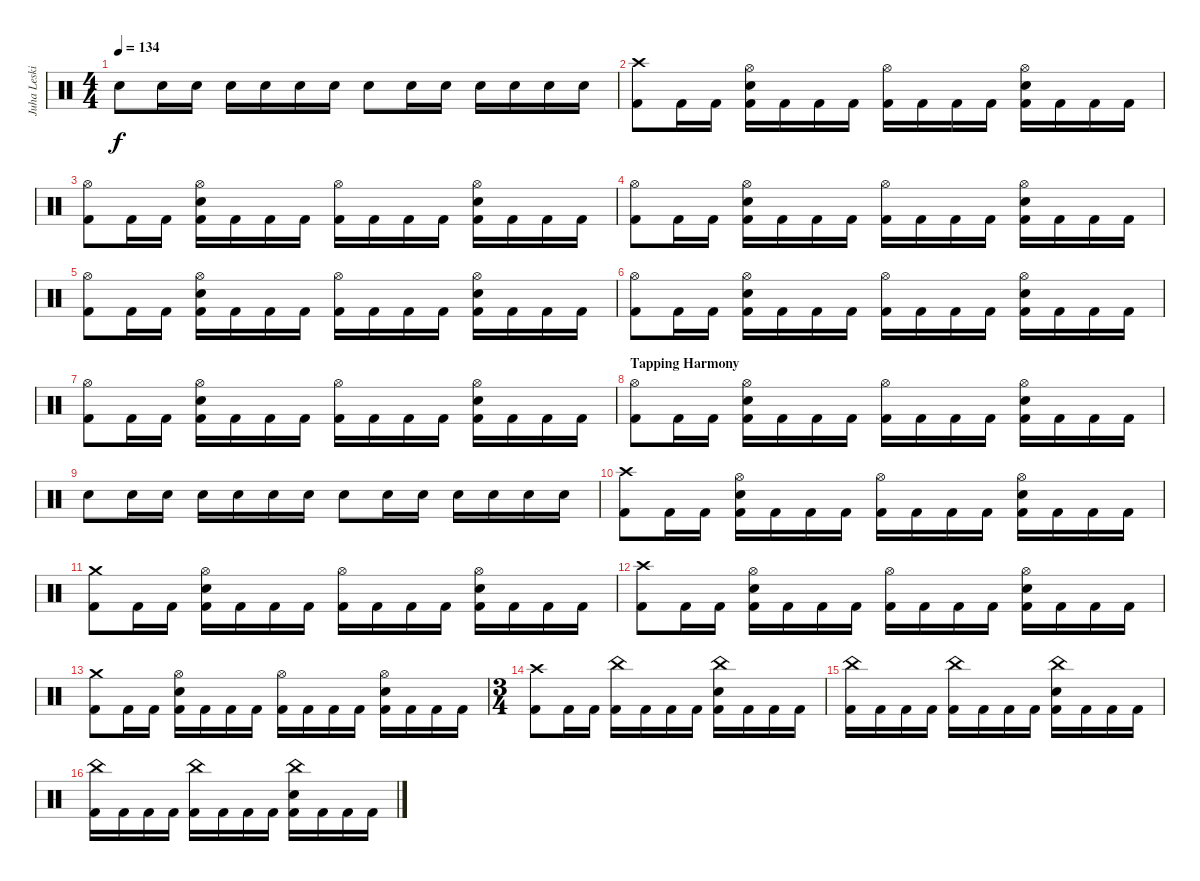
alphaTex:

\track ("Juha Leskinen - Drums" "Juha Leski") {instrument percussion}
\staff {score}
\articulation defaults
\ts (4 4)
\tempo 134
\clef neutral
\ks c "Electric Snare (hit)".8{dy f} "Electric Snare (hit)".16 "Electric Snare (hit)".16 "Electric Snare (hit)".16 "Electric Snare (hit)".16 "Electric Snare (hit)".16 "Electric Snare (hit)".16 "Electric Snare (hit)".8 "Electric Snare (hit)".16 "Electric Snare (hit)".16 "Electric Snare (hit)".16 "Electric Snare (hit)".16 "Electric Snare (hit)".16 "Electric Snare (hit)".16
|
("Crash high (hit)" "Kick (hit) 2").8 "Kick (hit) 2".16 "Kick (hit) 2".16 ("Hi-Hat (open)" "Electric Snare (hit)" "Kick (hit) 2").16 "Kick (hit) 2".16 "Kick (hit) 2".16 "Kick (hit) 2".16 ("Hi-Hat (open)" "Kick (hit) 2").16 "Kick (hit) 2".16 "Kick (hit) 2".16 "Kick (hit) 2".16 ("Hi-Hat (open)" "Electric Snare (hit)" "Kick (hit) 2").16 "Kick (hit) 2".16 "Kick (hit) 2".16 "Kick (hit) 2".16 |
("Hi-Hat (open)" "Kick (hit) 2").8 "Kick (hit) 2".16 "Kick (hit) 2".16 ("Hi-Hat (open)" "Electric Snare (hit)" "Kick (hit) 2").16 "Kick (hit) 2".16 "Kick (hit) 2".16 "Kick (hit) 2".16 ("Hi-Hat (open)" "Kick (hit) 2").16 "Kick (hit) 2".16 "Kick (hit) 2".16 "Kick (hit) 2".16 ("Hi-Hat (open)" "Electric Snare (hit)" "Kick (hit) 2").16 "Kick (hit) 2".16 "Kick (hit) 2".16 "Kick (hit) 2".16 |
("Hi-Hat (open)" "Kick (hit) 2").8 "Kick (hit) 2".16 "Kick (hit) 2".16 ("Hi-Hat (open)" "Electric Snare (hit)" "Kick (hit) 2").16 "Kick (hit) 2".16 "Kick (hit) 2".16 "Kick (hit) 2".16 ("Hi-Hat (open)" "Kick (hit) 2").16 "Kick (hit) 2".16 "Kick (hit) 2".16 "Kick (hit) 2".16 ("Hi-Hat (open)" "Electric Snare (hit)" "Kick (hit) 2").16 "Kick (hit) 2".16 "Kick (hit) 2".16 "Kick (hit) 2".16 |
("Hi-Hat (open)" "Kick (hit) 2").8 "Kick (hit) 2".16 "Kick (hit) 2".16 ("Hi-Hat (open)" "Electric Snare (hit)" "Kick (hit) 2").16 "Kick (hit) 2".16 "Kick (hit) 2".16 "Kick (hit) 2".16 ("Hi-Hat (open)" "Kick (hit) 2").16 "Kick (hit) 2".16 "Kick (hit) 2".16 "Kick (hit) 2".16 ("Hi-Hat (open)" "Electric Snare (hit)" "Kick (hit) 2").16 "Kick (hit) 2".16 "Kick (hit) 2".16 "Kick (hit) 2".16 |
("Hi-Hat (open)" "Kick (hit) 2").8 "Kick (hit) 2".16 "Kick (hit) 2".16 ("Hi-Hat (open)" "Electric Snare (hit)" "Kick (hit) 2").16 "Kick (hit) 2".16 "Kick (hit) 2".16 "Kick (hit) 2".16 ("Hi-Hat (open)" "Kick (hit) 2").16 "Kick (hit) 2".16 "Kick (hit) 2".16 "Kick (hit) 2".16 ("Hi-Hat (open)" "Electric Snare (hit)" "Kick (hit) 2").16 "Kick (hit) 2".16 "Kick (hit) 2".16 "Kick (hit) 2".16 |
("Hi-Hat (open)" "Kick (hit) 2").8 "Kick (hit) 2".16 "Kick (hit) 2".16 ("Hi-Hat (open)" "Electric Snare (hit)" "Kick (hit) 2").16 "Kick (hit) 2".16 "Kick (hit) 2".16 "Kick (hit) 2".16 ("Hi-Hat (open)" "Kick (hit) 2").16 "Kick (hit) 2".16 "Kick (hit) 2".16 "Kick (hit) 2".16 ("Hi-Hat (open)" "Electric Snare (hit)" "Kick (hit) 2").16 "Kick (hit) 2".16 "Kick (hit) 2".16 "Kick (hit) 2".16 |
\section ("" "Tapping Harmony")
("Hi-Hat (open)" "Kick (hit) 2").8 "Kick (hit) 2".16 "Kick (hit) 2".16 ("Hi-Hat (open)" "Electric Snare (hit)" "Kick (hit) 2").16 "Kick (hit) 2".16 "Kick (hit) 2".16 "Kick (hit) 2".16 ("Hi-Hat (open)" "Kick (hit) 2").16 "Kick (hit) 2".16 "Kick (hit) 2".16 "Kick (hit) 2".16 ("Hi-Hat (open)" "Electric Snare (hit)" "Kick (hit) 2").16 "Kick (hit) 2".16 "Kick (hit) 2".16 "Kick (hit) 2".16 |
"Electric Snare (hit)".8 "Electric Snare (hit)".16 "Electric Snare (hit)".16 "Electric Snare (hit)".16 "Electric Snare (hit)".16 "Electric Snare (hit)".16 "Electric Snare (hit)".16 "Electric Snare (hit)".8 "Electric Snare (hit)".16 "Electric Snare (hit)".16 "Electric Snare (hit)".16 "Electric Snare (hit)".16 "Electric Snare (hit)".16 "Electric Snare (hit)".16 |
("Crash high (hit)" "Kick (hit) 2").8 "Kick (hit) 2".16 "Kick (hit) 2".16 ("Hi-Hat (open)" "Electric Snare (hit)" "Kick (hit) 2").16 "Kick (hit) 2".16 "Kick (hit) 2".16 "Kick (hit) 2".16 ("Hi-Hat (open)" "Kick (hit) 2").16 "Kick (hit) 2".16 "Kick (hit) 2".16 "Kick (hit) 2".16 ("Hi-Hat (open)" "Electric Snare (hit)" "Kick (hit) 2").16 "Kick (hit) 2".16 "Kick (hit) 2".16 "Kick (hit) 2".16 |
("Crash medium (hit)" "Kick (hit) 2").8 "Kick (hit) 2".16 "Kick (hit) 2".16 ("Hi-Hat (open)" "Electric Snare (hit)" "Kick (hit) 2").16 "Kick (hit) 2".16 "Kick (hit) 2".16 "Kick (hit) 2".16 ("Hi-Hat (open)" "Kick (hit) 2").16 "Kick (hit) 2".16 "Kick (hit) 2".16 "Kick (hit) 2".16 ("Hi-Hat (open)" "Electric Snare (hit)" "Kick (hit) 2").16 "Kick (hit) 2".16 "Kick (hit) 2".16 "Kick (hit) 2".16 |
("Crash high (hit)" "Kick (hit) 2").8 "Kick (hit) 2".16 "Kick (hit) 2".16 ("Hi-Hat (open)" "Electric Snare (hit)" "Kick (hit) 2").16 "Kick (hit) 2".16 "Kick (hit) 2".16 "Kick (hit) 2".16 ("Hi-Hat (open)" "Kick (hit) 2").16 "Kick (hit) 2".16 "Kick (hit) 2".16 "Kick (hit) 2".16 ("Hi-Hat (open)" "Electric Snare (hit)" "Kick (hit) 2").16 "Kick (hit) 2".16 "Kick (hit) 2".16 "Kick (hit) 2".16 |
("Crash medium (hit)" "Kick (hit) 2").8 "Kick (hit) 2".16 "Kick (hit) 2".16 ("Hi-Hat (open)" "Electric Snare (hit)" "Kick (hit) 2").16 "Kick (hit) 2".16 "Kick (hit) 2".16 "Kick (hit) 2".16 ("Hi-Hat (open)" "Kick (hit) 2").16 "Kick (hit) 2".16 "Kick (hit) 2".16 "Kick (hit) 2".16 ("Hi-Hat (open)" "Electric Snare (hit)" "Kick (hit) 2").16 "Kick (hit) 2".16 "Kick (hit) 2".16 "Kick (hit) 2".16 |
\ts (3 4)
("Crash high (hit)" "Kick (hit) 2").8 "Kick (hit) 2".16 "Kick (hit) 2".16 ("China (hit)" "Kick (hit) 2").16 "Kick (hit) 2".16 "Kick (hit) 2".16 "Kick (hit) 2".16 ("China (hit)" "Electric Snare (hit)" "Kick (hit) 2").16 "Kick (hit) 2".16 "Kick (hit) 2".16 "Kick (hit) 2".16 |
("China (hit)" "Kick (hit) 2").16 "Kick (hit) 2".16 "Kick (hit) 2".16 "Kick (hit) 2".16 ("China (hit)" "Kick (hit) 2").16 "Kick (hit) 2".16 "Kick (hit) 2".16 "Kick (hit) 2".16 ("China (hit)" "Electric Snare (hit)" "Kick (hit) 2").16 "Kick (hit) 2".16 "Kick (hit) 2".16 "Kick (hit) 2".16 |
("China (hit)" "Kick (hit) 2").16 "Kick (hit) 2".16 "Kick (hit) 2".16 "Kick (hit) 2".16 ("China (hit)" "Kick (hit) 2").16 "Kick (hit) 2".16 "Kick (hit) 2".16 "Kick (hit) 2".16 ("China (hit)" "Electric Snare (hit)" "Kick (hit) 2").16 "Kick (hit) 2".16 "Kick (hit) 2".16 "Kick (hit) 2".16
